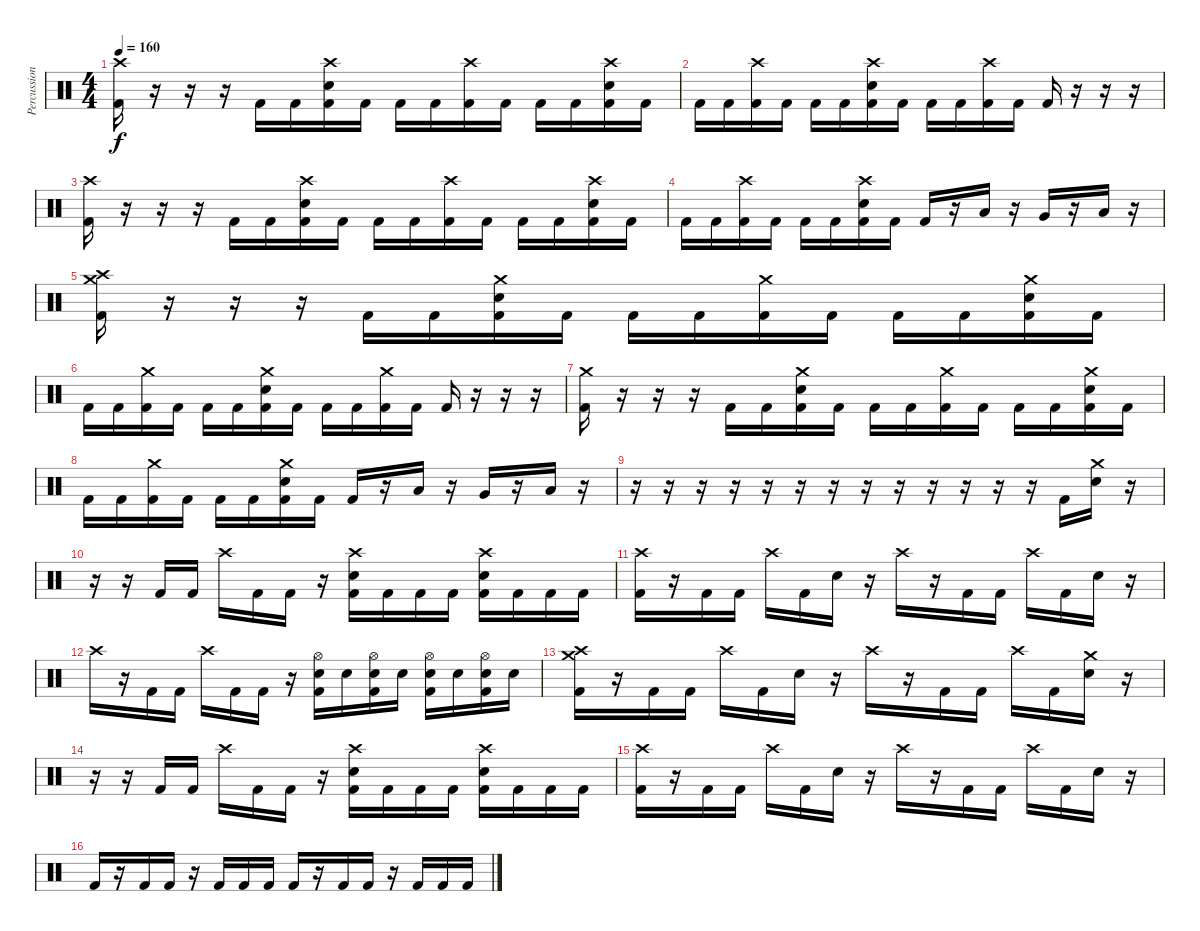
\track ("Percussion" "Percussion") {instrument percussion}
\staff {score}
\articulation defaults
\ts (4 4)
\tempo 160
\clef neutral
\ks c
("Crash high (hit)" "Kick (hit) 2").16{dy f} r.16 r.16 r.16 "Kick (hit) 2".16 "Kick (hit) 2".16 ("Crash high (hit)" "Snare (hit) 2" "Kick (hit) 2").16 "Kick (hit) 2".16 "Kick (hit) 2".16 "Kick (hit) 2".16 ("Crash high (hit)" "Kick (hit) 2").16 "Kick (hit) 2".16 "Kick (hit) 2".16 "Kick (hit) 2".16 ("Crash high (hit)" "Snare (hit) 2" "Kick (hit) 2").16 "Kick (hit) 2".16 |
"Kick (hit) 2".16 "Kick (hit) 2".16 ("Crash high (hit)" "Kick (hit) 2").16 "Kick (hit) 2".16 "Kick (hit) 2".16 "Kick (hit) 2".16 ("Crash high (hit)" "Snare (hit) 2" "Kick (hit) 2").16 "Kick (hit) 2".16 "Kick (hit) 2".16 "Kick (hit) 2".16 ("Crash high (hit)" "Kick (hit) 2").16 "Kick (hit) 2".16 "Kick (hit) 2".16 r.16 r.16 r.16 |
("Crash high (hit)" "Kick (hit) 2").16 r.16 r.16 r.16 "Kick (hit) 2".16 "Kick (hit) 2".16 ("Crash high (hit)" "Snare (hit) 2" "Kick (hit) 2").16 "Kick (hit) 2".16 "Kick (hit) 2".16 "Kick (hit) 2".16 ("Crash high (hit)" "Kick (hit) 2").16 "Kick (hit) 2".16 "Kick (hit) 2".16 "Kick (hit) 2".16 ("Crash high (hit)" "Snare (hit) 2" "Kick (hit) 2").16 "Kick (hit) 2".16 |
"Kick (hit) 2".16 "Kick (hit) 2".16 ("Crash high (hit)" "Kick (hit) 2").16 "Kick (hit) 2".16 "Kick (hit) 2".16 "Kick (hit) 2".16 ("Crash high (hit)" "Snare (hit) 2" "Kick (hit) 2").16 "Kick (hit) 2".16 "Kick (hit) 2".16 r.16 "Low Tom (hit)".16 r.16 "Very Low Tom (hit)".16 r.16 "Low Floor Tom (hit)".16 r.16 |
("Crash high (hit)" "Crash medium (hit)" "Kick (hit) 2").16 r.16 r.16 r.16 "Kick (hit) 2".16 "Kick (hit) 2".16 ("Crash medium (hit)" "Snare (hit) 2" "Kick (hit) 2").16 "Kick (hit) 2".16 "Kick (hit) 2".16 "Kick (hit) 2".16 ("Crash medium (hit)" "Kick (hit) 2").16 "Kick (hit) 2".16 "Kick (hit) 2".16 "Kick (hit) 2".16 ("Crash medium (hit)" "Snare (hit) 2" "Kick (hit) 2").16 "Kick (hit) 2".16 |
"Kick (hit) 2".16 "Kick (hit) 2".16 ("Crash medium (hit)" "Kick (hit) 2").16 "Kick (hit) 2".16 "Kick (hit) 2".16 "Kick (hit) 2".16 ("Crash medium (hit)" "Snare (hit) 2" "Kick (hit) 2").16 "Kick (hit) 2".16 "Kick (hit) 2".16 "Kick (hit) 2".16 ("Crash medium (hit)" "Kick (hit) 2").16 "Kick (hit) 2".16 "Kick (hit) 2".16 r.16 r.16 r.16 |
("Crash medium (hit)" "Kick (hit) 2").16 r.16 r.16 r.16 "Kick (hit) 2".16 "Kick (hit) 2".16 ("Crash medium (hit)" "Snare (hit) 2" "Kick (hit) 2").16 "Kick (hit) 2".16 "Kick (hit) 2".16 "Kick (hit) 2".16 ("Crash medium (hit)" "Kick (hit) 2").16 "Kick (hit) 2".16 "Kick (hit) 2".16 "Kick (hit) 2".16 ("Crash medium (hit)" "Snare (hit) 2" "Kick (hit) 2").16 "Kick (hit) 2".16 |
"Kick (hit) 2".16 "Kick (hit) 2".16 ("Crash medium (hit)" "Kick (hit) 2").16 "Kick (hit) 2".16 "Kick (hit) 2".16 "Kick (hit) 2".16 ("Crash medium (hit)" "Snare (hit) 2" "Kick (hit) 2").16 "Kick (hit) 2".16 "Kick (hit) 2".16 r.16 "Low Tom (hit)".16 r.16 "Very Low Tom (hit)".16 r.16 "Low Floor Tom (hit)".16 r.16 |
r.16 r.16 r.16 r.16 r.16 r.16 r.16 r.16 r.16 r.16 r.16 r.16 r.16 "Kick (hit) 2".16 ("Crash medium (hit)" "Snare (hit) 2").16 r.16 |
r.16 r.16 "Kick (hit) 2".16 "Kick (hit) 2".16 "Crash high (hit)".16 "Kick (hit) 2".16 "Kick (hit) 2".16 r.16 ("Crash high (hit)" "Snare (hit) 2" "Kick (hit) 2").16 "Kick (hit) 2".16 "Kick (hit) 2".16 "Kick (hit) 2".16 ("Crash high (hit)" "Snare (hit) 2" "Kick (hit) 2").16 "Kick (hit) 2".16 "Kick (hit) 2".16 "Kick (hit) 2".16 |
("Crash high (hit)" "Kick (hit) 2").16 r.16 "Kick (hit) 2".16 "Kick (hit) 2".16 "Crash high (hit)".16 "Kick (hit) 2".16 "Snare (hit) 2".16 r.16 "Crash high (hit)".16 r.16 "Kick (hit) 2".16 "Kick (hit) 2".16 "Crash high (hit)".16 "Kick (hit) 2".16 "Snare (hit) 2".16 r.16 |
"Crash high (hit)".16 r.16 "Kick (hit) 2".16 "Kick (hit) 2".16 "Crash high (hit)".16 "Kick (hit) 2".16 "Kick (hit) 2".16 r.16 ("Hi-Hat (open)" "Kick (hit) 2" "Snare (hit) 2").16 "Snare (hit) 2".16 ("Hi-Hat (open)" "Kick (hit) 2" "Snare (hit) 2").16 "Snare (hit) 2".16 ("Hi-Hat (open)" "Kick (hit) 2" "Snare (hit) 2").16 "Snare (hit) 2".16 ("Hi-Hat (open)" "Kick (hit) 2" "Snare (hit) 2").16 "Snare (hit) 2".16 |
("Crash high (hit)" "Crash medium (hit)" "Kick (hit) 2").16 r.16 "Kick (hit) 2".16 "Kick (hit) 2".16 "Crash high (hit)".16 "Kick (hit) 2".16 "Snare (hit) 2".16 r.16 "Crash high (hit)".16 r.16 "Kick (hit) 2".16 "Kick (hit) 2".16 "Crash high (hit)".16 "Kick (hit) 2".16 ("Crash medium (hit)" "Snare (hit) 2").16 r.16 |
r.16 r.16 "Kick (hit) 2".16 "Kick (hit) 2".16 "Crash high (hit)".16 "Kick (hit) 2".16 "Kick (hit) 2".16 r.16 ("Crash high (hit)" "Snare (hit) 2" "Kick (hit) 2").16 "Kick (hit) 2".16 "Kick (hit) 2".16 "Kick (hit) 2".16 ("Crash high (hit)" "Snare (hit) 2" "Kick (hit) 2").16 "Kick (hit) 2".16 "Kick (hit) 2".16 "Kick (hit) 2".16 |
("Crash high (hit)" "Kick (hit) 2").16 r.16 "Kick (hit) 2".16 "Kick (hit) 2".16 "Crash high (hit)".16 "Kick (hit) 2".16 "Snare (hit) 2".16 r.16 "Crash high (hit)".16 r.16 "Kick (hit) 2".16 "Kick (hit) 2".16 "Crash high (hit)".16 "Kick (hit) 2".16 "Snare (hit) 2".16 r.16 |
"Kick (hit) 2".16 r.16 "Kick (hit) 2".16 "Kick (hit) 2".16 r.16 "Kick (hit) 2".16 "Kick (hit) 2".16 "Kick (hit) 2".16 "Kick (hit) 2".16 r.16 "Kick (hit) 2".16 "Kick (hit) 2".16 r.16 "Kick (hit) 2".16 "Kick (hit) 2".16 "Kick (hit) 2".16
